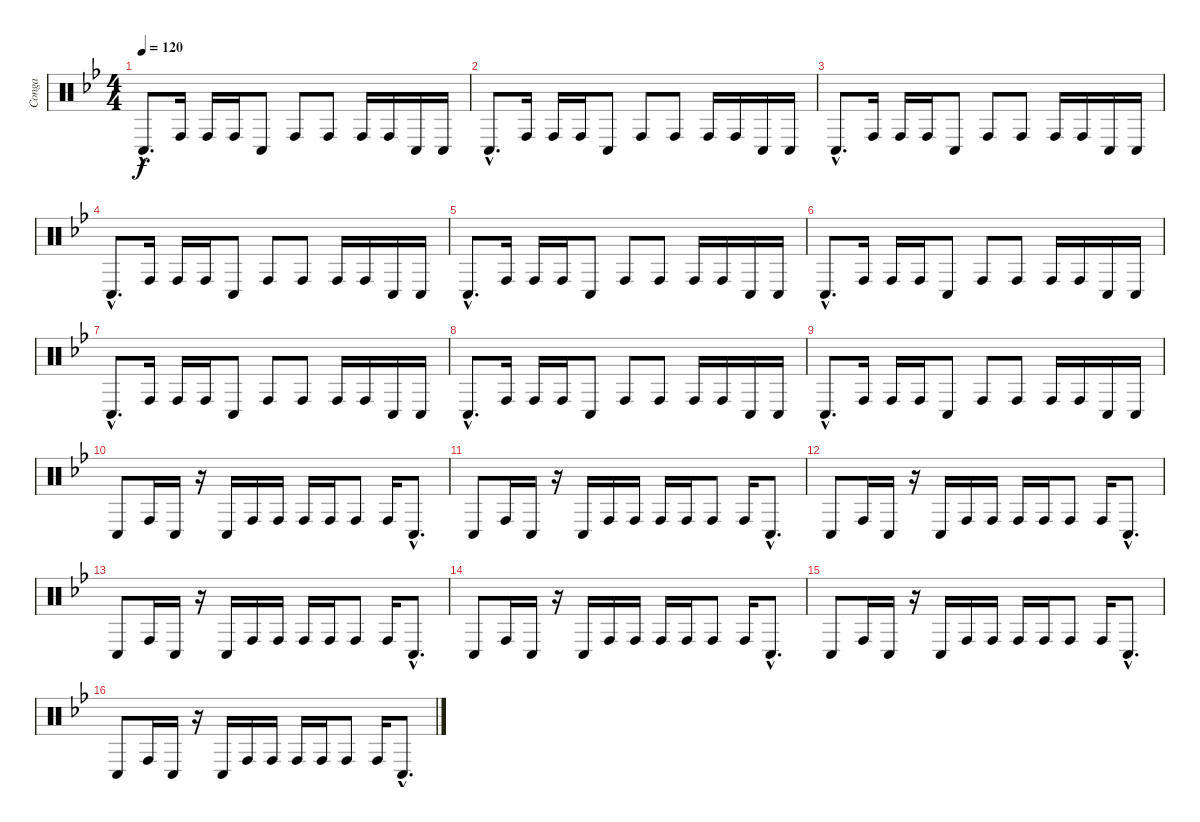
\track ("Conga" "Conga") {instrument percussion}
\staff {score}
\articulation defaults
\ts (4 4)
\tempo 120
\clef neutral
\ks bb "Conga low (hit)"{hac}.8{d dy f} "Conga high (hit)".16 "Conga high (hit)".16 "Conga high (hit)".16 "Conga low (hit)".8 "Conga high (hit)".8 "Conga high (hit)".8 "Conga high (hit)".16 "Conga high (hit)".16 "Conga low (hit)".16 "Conga low (hit)".16
|
"Conga low (hit)"{hac}.8{d} "Conga high (hit)".16 "Conga high (hit)".16 "Conga high (hit)".16 "Conga low (hit)".8 "Conga high (hit)".8 "Conga high (hit)".8 "Conga high (hit)".16 "Conga high (hit)".16 "Conga low (hit)".16 "Conga low (hit)".16 |
"Conga low (hit)"{hac}.8{d} "Conga high (hit)".16 "Conga high (hit)".16 "Conga high (hit)".16 "Conga low (hit)".8 "Conga high (hit)".8 "Conga high (hit)".8 "Conga high (hit)".16 "Conga high (hit)".16 "Conga low (hit)".16 "Conga low (hit)".16 |
"Conga low (hit)"{hac}.8{d} "Conga high (hit)".16 "Conga high (hit)".16 "Conga high (hit)".16 "Conga low (hit)".8 "Conga high (hit)".8 "Conga high (hit)".8 "Conga high (hit)".16 "Conga high (hit)".16 "Conga low (hit)".16 "Conga low (hit)".16 |
"Conga low (hit)"{hac}.8{d} "Conga high (hit)".16 "Conga high (hit)".16 "Conga high (hit)".16 "Conga low (hit)".8 "Conga high (hit)".8 "Conga high (hit)".8 "Conga high (hit)".16 "Conga high (hit)".16 "Conga low (hit)".16 "Conga low (hit)".16 |
"Conga low (hit)"{hac}.8{d} "Conga high (hit)".16 "Conga high (hit)".16 "Conga high (hit)".16 "Conga low (hit)".8 "Conga high (hit)".8 "Conga high (hit)".8 "Conga high (hit)".16 "Conga high (hit)".16 "Conga low (hit)".16 "Conga low (hit)".16 |
"Conga low (hit)"{hac}.8{d} "Conga high (hit)".16 "Conga high (hit)".16 "Conga high (hit)".16 "Conga low (hit)".8 "Conga high (hit)".8 "Conga high (hit)".8 "Conga high (hit)".16 "Conga high (hit)".16 "Conga low (hit)".16 "Conga low (hit)".16 |
"Conga low (hit)"{hac}.8{d} "Conga high (hit)".16 "Conga high (hit)".16 "Conga high (hit)".16 "Conga low (hit)".8 "Conga high (hit)".8 "Conga high (hit)".8 "Conga high (hit)".16 "Conga high (hit)".16 "Conga low (hit)".16 "Conga low (hit)".16 |
"Conga low (hit)"{hac}.8{d} "Conga high (hit)".16 "Conga high (hit)".16 "Conga high (hit)".16 "Conga low (hit)".8 "Conga high (hit)".8 "Conga high (hit)".8 "Conga high (hit)".16 "Conga high (hit)".16 "Conga low (hit)".16 "Conga low (hit)".16 |
"Conga low (hit)".8 "Conga high (hit)".16 "Conga low (hit)".16 r.16 "Conga low (hit)".16 "Conga high (hit)".16 "Conga high (hit)".16 "Conga high (hit)".16 "Conga high (hit)".16 "Conga high (hit)".8 "Conga high (hit)".16 "Conga low (hit)"{hac}.8{d} |
"Conga low (hit)".8 "Conga high (hit)".16 "Conga low (hit)".16 r.16 "Conga low (hit)".16 "Conga high (hit)".16 "Conga high (hit)".16 "Conga high (hit)".16 "Conga high (hit)".16 "Conga high (hit)".8 "Conga high (hit)".16 "Conga low (hit)"{hac}.8{d} |
"Conga low (hit)".8 "Conga high (hit)".16 "Conga low (hit)".16 r.16 "Conga low (hit)".16 "Conga high (hit)".16 "Conga high (hit)".16 "Conga high (hit)".16 "Conga high (hit)".16 "Conga high (hit)".8 "Conga high (hit)".16 "Conga low (hit)"{hac}.8{d} |
"Conga low (hit)".8 "Conga high (hit)".16 "Conga low (hit)".16 r.16 "Conga low (hit)".16 "Conga high (hit)".16 "Conga high (hit)".16 "Conga high (hit)".16 "Conga high (hit)".16 "Conga high (hit)".8 "Conga high (hit)".16 "Conga low (hit)"{hac}.8{d} |
"Conga low (hit)".8 "Conga high (hit)".16 "Conga low (hit)".16 r.16 "Conga low (hit)".16 "Conga high (hit)".16 "Conga high (hit)".16 "Conga high (hit)".16 "Conga high (hit)".16 "Conga high (hit)".8 "Conga high (hit)".16 "Conga low (hit)"{hac}.8{d} |
"Conga low (hit)".8 "Conga high (hit)".16 "Conga low (hit)".16 r.16 "Conga low (hit)".16 "Conga high (hit)".16 "Conga high (hit)".16 "Conga high (hit)".16 "Conga high (hit)".16 "Conga high (hit)".8 "Conga high (hit)".16 "Conga low (hit)"{hac}.8{d} |
"Conga low (hit)".8 "Conga high (hit)".16 "Conga low (hit)".16 r.16 "Conga low (hit)".16 "Conga high (hit)".16 "Conga high (hit)".16 "Conga high (hit)".16 "Conga high (hit)".16 "Conga high (hit)".8 "Conga high (hit)".16 "Conga low (hit)"{hac}.8{d}
